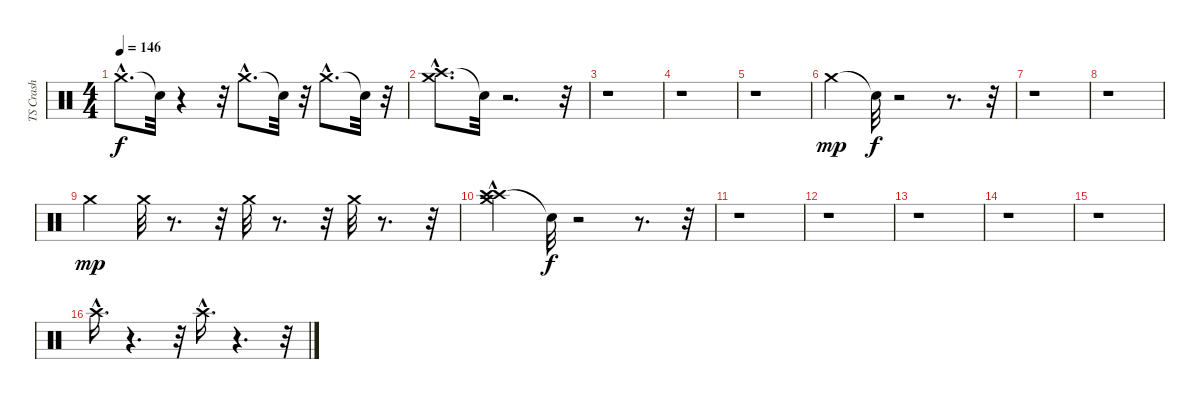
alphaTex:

\track ("TS Crash" "TS Crash") {instrument percussion}
\staff {score}
\articulation defaults
\ts (4 4)
\tempo 146
\clef neutral
\ks c "Crash medium (hit)"{hac}.8{d dy f} "Snare (hit)"{t}.32
r.4 r.32 "Crash medium (hit)"{hac}.8{d} "Snare (hit)"{t}.32 r.32 "Crash medium (hit)"{hac}.8{d} "Snare (hit)"{t}.32 r.32 |
("Crash high (hit)"{hac} "Crash medium (hit)"{hac}).8{d} "Snare (hit)"{t}.32 r.2{d} r.32 |
r.1 |
r.1 |
r.1 |
"Crash medium (hit)".4{dy mp} "Snare (hit)"{t}.32{dy f} r.2 r.8{d} r.32 |
r.1 |
r.1 |
"Crash medium (hit)".4{dy mp} "Crash medium (hit)".32 r.8{d} r.32 "Crash medium (hit)".32 r.8{d} r.32 "Crash medium (hit)".32 r.8{d} r.32 |
("Crash high (hit)"{hac} "Crash high (hit)"{hac} "Crash medium (hit)").4 "Snare (hit)"{t}.32{dy f} r.2 r.8{d} r.32 |
r.1 |
r.1 |
r.1 |
r.1 |
r.1 |
"Crash high (hit)"{hac}.16{d} r.4{d} r.32 "Crash high (hit)"{hac}.16{d} r.4{d} r.32
